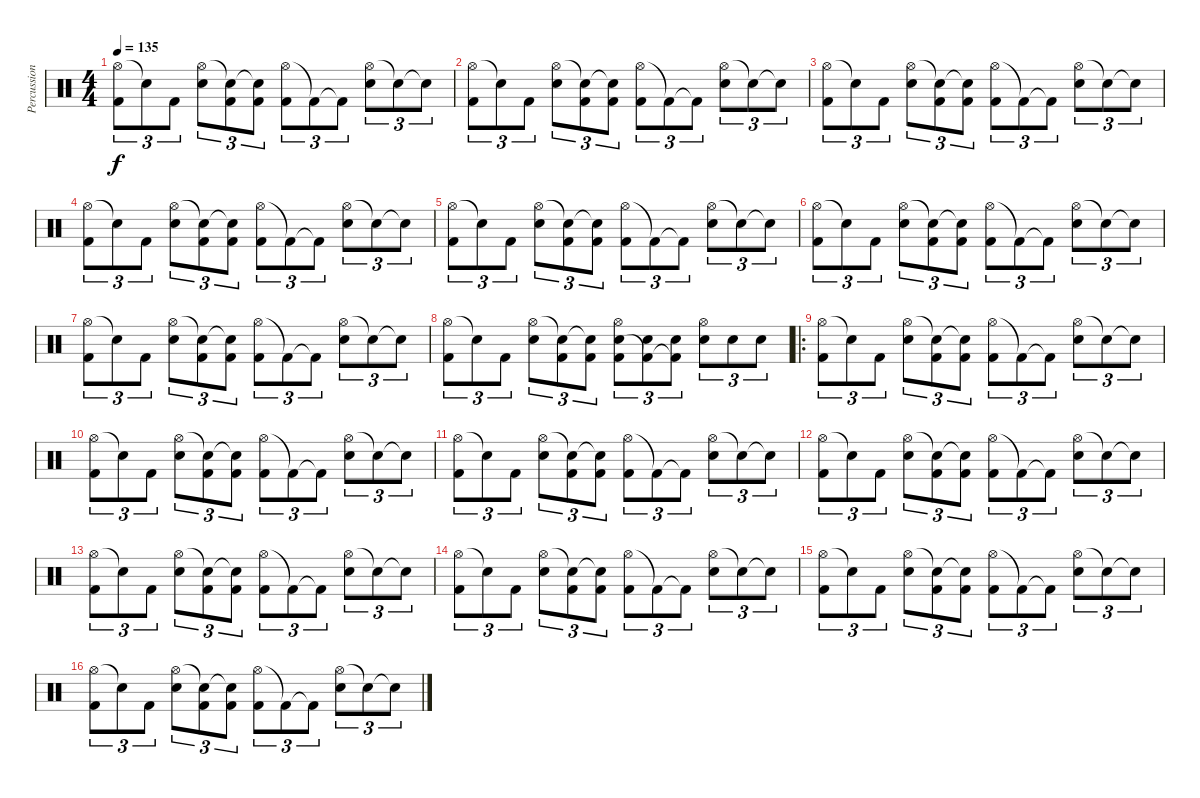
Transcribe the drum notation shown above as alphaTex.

\track ("Percussions" "Percussion") {instrument percussion}
\staff {score}
\articulation defaults
\ts (4 4)
\tempo 135
\clef neutral
\ks c
("Hi-Hat (open)" "Kick (hit) 2").8{tu (3 2) dy f} "Snare (hit)"{t}.8{tu (3 2)} "Kick (hit) 2".8{tu (3 2)} ("Hi-Hat (open)" "Snare (hit) 2").8{tu (3 2)} ("Snare (hit)"{t} "Kick (hit) 2").8{tu (3 2)} ("Snare (hit)"{t} "Kick (hit) 2").8{tu (3 2)} ("Hi-Hat (open)" "Kick (hit) 2").8{tu (3 2)} "Kick (hit) 2"{t}.8{tu (3 2)} "Kick (hit) 2"{t}.8{tu (3 2)} ("Hi-Hat (open)" "Snare (hit) 2").8{tu (3 2)} "Snare (hit)"{t}.8{tu (3 2)} "Snare (hit)"{t}.8{tu (3 2)} |
("Hi-Hat (open)" "Kick (hit) 2").8{tu (3 2)} "Snare (hit)"{t}.8{tu (3 2)} "Kick (hit) 2".8{tu (3 2)} ("Hi-Hat (open)" "Snare (hit) 2").8{tu (3 2)} ("Snare (hit)"{t} "Kick (hit) 2").8{tu (3 2)} ("Snare (hit)"{t} "Kick (hit) 2").8{tu (3 2)} ("Hi-Hat (open)" "Kick (hit) 2").8{tu (3 2)} "Kick (hit) 2"{t}.8{tu (3 2)} "Kick (hit) 2"{t}.8{tu (3 2)} ("Hi-Hat (open)" "Snare (hit) 2").8{tu (3 2)} "Snare (hit)"{t}.8{tu (3 2)} "Snare (hit)"{t}.8{tu (3 2)} |
("Hi-Hat (open)" "Kick (hit) 2").8{tu (3 2)} "Snare (hit)"{t}.8{tu (3 2)} "Kick (hit) 2".8{tu (3 2)} ("Hi-Hat (open)" "Snare (hit) 2").8{tu (3 2)} ("Snare (hit)"{t} "Kick (hit) 2").8{tu (3 2)} ("Snare (hit)"{t} "Kick (hit) 2").8{tu (3 2)} ("Hi-Hat (open)" "Kick (hit) 2").8{tu (3 2)} "Kick (hit) 2"{t}.8{tu (3 2)} "Kick (hit) 2"{t}.8{tu (3 2)} ("Hi-Hat (open)" "Snare (hit) 2").8{tu (3 2)} "Snare (hit)"{t}.8{tu (3 2)} "Snare (hit)"{t}.8{tu (3 2)} |
("Hi-Hat (open)" "Kick (hit) 2").8{tu (3 2)} "Snare (hit)"{t}.8{tu (3 2)} "Kick (hit) 2".8{tu (3 2)} ("Hi-Hat (open)" "Snare (hit) 2").8{tu (3 2)} ("Snare (hit)"{t} "Kick (hit) 2").8{tu (3 2)} ("Snare (hit)"{t} "Kick (hit) 2").8{tu (3 2)} ("Hi-Hat (open)" "Kick (hit) 2").8{tu (3 2)} "Kick (hit) 2"{t}.8{tu (3 2)} "Kick (hit) 2"{t}.8{tu (3 2)} ("Hi-Hat (open)" "Snare (hit) 2").8{tu (3 2)} "Snare (hit)"{t}.8{tu (3 2)} "Snare (hit)"{t}.8{tu (3 2)} |
("Hi-Hat (open)" "Kick (hit) 2").8{tu (3 2)} "Snare (hit)"{t}.8{tu (3 2)} "Kick (hit) 2".8{tu (3 2)} ("Hi-Hat (open)" "Snare (hit) 2").8{tu (3 2)} ("Snare (hit)"{t} "Kick (hit) 2").8{tu (3 2)} ("Snare (hit)"{t} "Kick (hit) 2").8{tu (3 2)} ("Hi-Hat (open)" "Kick (hit) 2").8{tu (3 2)} "Kick (hit) 2"{t}.8{tu (3 2)} "Kick (hit) 2"{t}.8{tu (3 2)} ("Hi-Hat (open)" "Snare (hit) 2").8{tu (3 2)} "Snare (hit)"{t}.8{tu (3 2)} "Snare (hit)"{t}.8{tu (3 2)} |
("Hi-Hat (open)" "Kick (hit) 2").8{tu (3 2)} "Snare (hit)"{t}.8{tu (3 2)} "Kick (hit) 2".8{tu (3 2)} ("Hi-Hat (open)" "Snare (hit) 2").8{tu (3 2)} ("Snare (hit)"{t} "Kick (hit) 2").8{tu (3 2)} ("Snare (hit)"{t} "Kick (hit) 2").8{tu (3 2)} ("Hi-Hat (open)" "Kick (hit) 2").8{tu (3 2)} "Kick (hit) 2"{t}.8{tu (3 2)} "Kick (hit) 2"{t}.8{tu (3 2)} ("Hi-Hat (open)" "Snare (hit) 2").8{tu (3 2)} "Snare (hit)"{t}.8{tu (3 2)} "Snare (hit)"{t}.8{tu (3 2)} |
("Hi-Hat (open)" "Kick (hit) 2").8{tu (3 2)} "Snare (hit)"{t}.8{tu (3 2)} "Kick (hit) 2".8{tu (3 2)} ("Hi-Hat (open)" "Snare (hit) 2").8{tu (3 2)} ("Snare (hit)"{t} "Kick (hit) 2").8{tu (3 2)} ("Snare (hit)"{t} "Kick (hit) 2").8{tu (3 2)} ("Hi-Hat (open)" "Kick (hit) 2").8{tu (3 2)} "Kick (hit) 2"{t}.8{tu (3 2)} "Kick (hit) 2"{t}.8{tu (3 2)} ("Hi-Hat (open)" "Snare (hit) 2").8{tu (3 2)} "Snare (hit)"{t}.8{tu (3 2)} "Snare (hit)"{t}.8{tu (3 2)} |
("Hi-Hat (open)" "Kick (hit) 2").8{tu (3 2)} "Snare (hit)"{t}.8{tu (3 2)} "Kick (hit) 2".8{tu (3 2)} ("Hi-Hat (open)" "Snare (hit) 2").8{tu (3 2)} ("Snare (hit)"{t} "Kick (hit) 2").8{tu (3 2)} ("Snare (hit)"{t} "Kick (hit) 2").8{tu (3 2)} ("Hi-Hat (open)" "Snare (hit) 2" "Kick (hit) 2").8{tu (3 2)} ("Snare (hit) 2" "Kick (hit) 2"{t}).8{tu (3 2)} ("Snare (hit) 2" "Kick (hit) 2"{t}).8{tu (3 2)} ("Hi-Hat (open)" "Snare (hit) 2").8{tu (3 2)} "Snare (hit) 2".8{tu (3 2)} "Snare (hit) 2".8{tu (3 2)} |
\ro
("Hi-Hat (open)" "Kick (hit) 2").8{tu (3 2)} "Snare (hit)"{t}.8{tu (3 2)} "Kick (hit) 2".8{tu (3 2)} ("Hi-Hat (open)" "Snare (hit) 2").8{tu (3 2)} ("Snare (hit)"{t} "Kick (hit) 2").8{tu (3 2)} ("Snare (hit)"{t} "Kick (hit) 2").8{tu (3 2)} ("Hi-Hat (open)" "Kick (hit) 2").8{tu (3 2)} "Kick (hit) 2"{t}.8{tu (3 2)} "Kick (hit) 2"{t}.8{tu (3 2)} ("Hi-Hat (open)" "Snare (hit) 2").8{tu (3 2)} "Snare (hit)"{t}.8{tu (3 2)} "Snare (hit)"{t}.8{tu (3 2)} |
("Hi-Hat (open)" "Kick (hit) 2").8{tu (3 2)} "Snare (hit)"{t}.8{tu (3 2)} "Kick (hit) 2".8{tu (3 2)} ("Hi-Hat (open)" "Snare (hit) 2").8{tu (3 2)} ("Snare (hit)"{t} "Kick (hit) 2").8{tu (3 2)} ("Snare (hit)"{t} "Kick (hit) 2").8{tu (3 2)} ("Hi-Hat (open)" "Kick (hit) 2").8{tu (3 2)} "Kick (hit) 2"{t}.8{tu (3 2)} "Kick (hit) 2"{t}.8{tu (3 2)} ("Hi-Hat (open)" "Snare (hit) 2").8{tu (3 2)} "Snare (hit)"{t}.8{tu (3 2)} "Snare (hit)"{t}.8{tu (3 2)} |
("Hi-Hat (open)" "Kick (hit) 2").8{tu (3 2)} "Snare (hit)"{t}.8{tu (3 2)} "Kick (hit) 2".8{tu (3 2)} ("Hi-Hat (open)" "Snare (hit) 2").8{tu (3 2)} ("Snare (hit)"{t} "Kick (hit) 2").8{tu (3 2)} ("Snare (hit)"{t} "Kick (hit) 2").8{tu (3 2)} ("Hi-Hat (open)" "Kick (hit) 2").8{tu (3 2)} "Kick (hit) 2"{t}.8{tu (3 2)} "Kick (hit) 2"{t}.8{tu (3 2)} ("Hi-Hat (open)" "Snare (hit) 2").8{tu (3 2)} "Snare (hit)"{t}.8{tu (3 2)} "Snare (hit)"{t}.8{tu (3 2)} |
("Hi-Hat (open)" "Kick (hit) 2").8{tu (3 2)} "Snare (hit)"{t}.8{tu (3 2)} "Kick (hit) 2".8{tu (3 2)} ("Hi-Hat (open)" "Snare (hit) 2").8{tu (3 2)} ("Snare (hit)"{t} "Kick (hit) 2").8{tu (3 2)} ("Snare (hit)"{t} "Kick (hit) 2").8{tu (3 2)} ("Hi-Hat (open)" "Kick (hit) 2").8{tu (3 2)} "Kick (hit) 2"{t}.8{tu (3 2)} "Kick (hit) 2"{t}.8{tu (3 2)} ("Hi-Hat (open)" "Snare (hit) 2").8{tu (3 2)} "Snare (hit)"{t}.8{tu (3 2)} "Snare (hit)"{t}.8{tu (3 2)} |
("Hi-Hat (open)" "Kick (hit) 2").8{tu (3 2)} "Snare (hit)"{t}.8{tu (3 2)} "Kick (hit) 2".8{tu (3 2)} ("Hi-Hat (open)" "Snare (hit) 2").8{tu (3 2)} ("Snare (hit)"{t} "Kick (hit) 2").8{tu (3 2)} ("Snare (hit)"{t} "Kick (hit) 2").8{tu (3 2)} ("Hi-Hat (open)" "Kick (hit) 2").8{tu (3 2)} "Kick (hit) 2"{t}.8{tu (3 2)} "Kick (hit) 2"{t}.8{tu (3 2)} ("Hi-Hat (open)" "Snare (hit) 2").8{tu (3 2)} "Snare (hit)"{t}.8{tu (3 2)} "Snare (hit)"{t}.8{tu (3 2)} |
("Hi-Hat (open)" "Kick (hit) 2").8{tu (3 2)} "Snare (hit)"{t}.8{tu (3 2)} "Kick (hit) 2".8{tu (3 2)} ("Hi-Hat (open)" "Snare (hit) 2").8{tu (3 2)} ("Snare (hit)"{t} "Kick (hit) 2").8{tu (3 2)} ("Snare (hit)"{t} "Kick (hit) 2").8{tu (3 2)} ("Hi-Hat (open)" "Kick (hit) 2").8{tu (3 2)} "Kick (hit) 2"{t}.8{tu (3 2)} "Kick (hit) 2"{t}.8{tu (3 2)} ("Hi-Hat (open)" "Snare (hit) 2").8{tu (3 2)} "Snare (hit)"{t}.8{tu (3 2)} "Snare (hit)"{t}.8{tu (3 2)} |
("Hi-Hat (open)" "Kick (hit) 2").8{tu (3 2)} "Snare (hit)"{t}.8{tu (3 2)} "Kick (hit) 2".8{tu (3 2)} ("Hi-Hat (open)" "Snare (hit) 2").8{tu (3 2)} ("Snare (hit)"{t} "Kick (hit) 2").8{tu (3 2)} ("Snare (hit)"{t} "Kick (hit) 2").8{tu (3 2)} ("Hi-Hat (open)" "Kick (hit) 2").8{tu (3 2)} "Kick (hit) 2"{t}.8{tu (3 2)} "Kick (hit) 2"{t}.8{tu (3 2)} ("Hi-Hat (open)" "Snare (hit) 2").8{tu (3 2)} "Snare (hit)"{t}.8{tu (3 2)} "Snare (hit)"{t}.8{tu (3 2)} |
("Hi-Hat (open)" "Kick (hit) 2").8{tu (3 2)} "Snare (hit)"{t}.8{tu (3 2)} "Kick (hit) 2".8{tu (3 2)} ("Hi-Hat (open)" "Snare (hit) 2").8{tu (3 2)} ("Snare (hit)"{t} "Kick (hit) 2").8{tu (3 2)} ("Snare (hit)"{t} "Kick (hit) 2").8{tu (3 2)} ("Hi-Hat (open)" "Kick (hit) 2").8{tu (3 2)} "Kick (hit) 2"{t}.8{tu (3 2)} "Kick (hit) 2"{t}.8{tu (3 2)} ("Hi-Hat (open)" "Snare (hit) 2").8{tu (3 2)} "Snare (hit)"{t}.8{tu (3 2)} "Snare (hit)"{t}.8{tu (3 2)}
